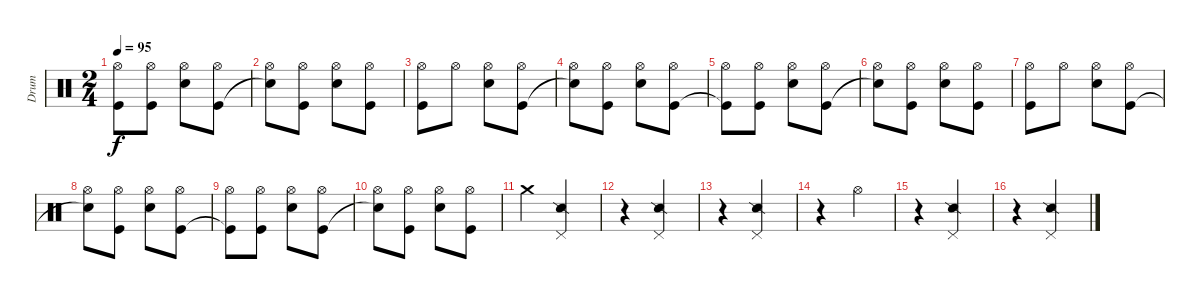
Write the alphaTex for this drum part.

\track ("Drum" "Drum") {instrument percussion}
\staff {score}
\articulation defaults
\ts (2 4)
\tempo 95
\clef neutral
\ks c
("Kick (hit)"{t} "Hi-Hat (open)").8{dy f} ("Kick (hit)" "Hi-Hat (open)").8 ("Electric Snare (hit)" "Hi-Hat (open)").8 ("Kick (hit)" "Hi-Hat (open)").8 |
("Snare (hit)"{t} "Hi-Hat (open)").8 ("Kick (hit)" "Hi-Hat (open)").8 ("Electric Snare (hit)" "Hi-Hat (open)").8 ("Kick (hit)" "Hi-Hat (open)").8 |
("Kick (hit)" "Hi-Hat (open)").8 "Hi-Hat (open)".8 ("Electric Snare (hit)" "Hi-Hat (open)").8 ("Kick (hit)" "Hi-Hat (open)").8 |
("Snare (hit)"{t} "Hi-Hat (open)").8 ("Kick (hit)" "Hi-Hat (open)").8 ("Electric Snare (hit)" "Hi-Hat (open)").8 ("Kick (hit)" "Hi-Hat (open)").8 |
("Kick (hit)"{t} "Hi-Hat (open)").8 ("Kick (hit)" "Hi-Hat (open)").8 ("Electric Snare (hit)" "Hi-Hat (open)").8 ("Kick (hit)" "Hi-Hat (open)").8 |
("Snare (hit)"{t} "Hi-Hat (open)").8 ("Kick (hit)" "Hi-Hat (open)").8 ("Electric Snare (hit)" "Hi-Hat (open)").8 ("Kick (hit)" "Hi-Hat (open)").8 |
("Kick (hit)" "Hi-Hat (open)").8 "Hi-Hat (open)".8 ("Electric Snare (hit)" "Hi-Hat (open)").8 ("Kick (hit)" "Hi-Hat (open)").8 |
("Snare (hit)"{t} "Hi-Hat (open)").8 ("Kick (hit)" "Hi-Hat (open)").8 ("Electric Snare (hit)" "Hi-Hat (open)").8 ("Kick (hit)" "Hi-Hat (open)").8 |
("Kick (hit)"{t} "Hi-Hat (open)").8 ("Kick (hit)" "Hi-Hat (open)").8 ("Electric Snare (hit)" "Hi-Hat (open)").8 ("Kick (hit)" "Hi-Hat (open)").8 |
("Snare (hit)"{t} "Hi-Hat (open)").8 ("Kick (hit)" "Hi-Hat (open)").8 ("Electric Snare (hit)" "Hi-Hat (open)").8 ("Kick (hit)" "Hi-Hat (open)").8 |
"Crash medium (hit)".4 ("Snare (side stick) 2" "Pedal Hi-Hat (hit)").4 |
r.4 ("Snare (side stick) 2" "Pedal Hi-Hat (hit)").4 |
r.4 ("Snare (side stick) 2" "Pedal Hi-Hat (hit)").4 |
r.4 "Hi-Hat (open)".4 |
r.4 ("Snare (side stick) 2" "Pedal Hi-Hat (hit)").4 |
r.4 ("Snare (side stick) 2" "Pedal Hi-Hat (hit)").4
